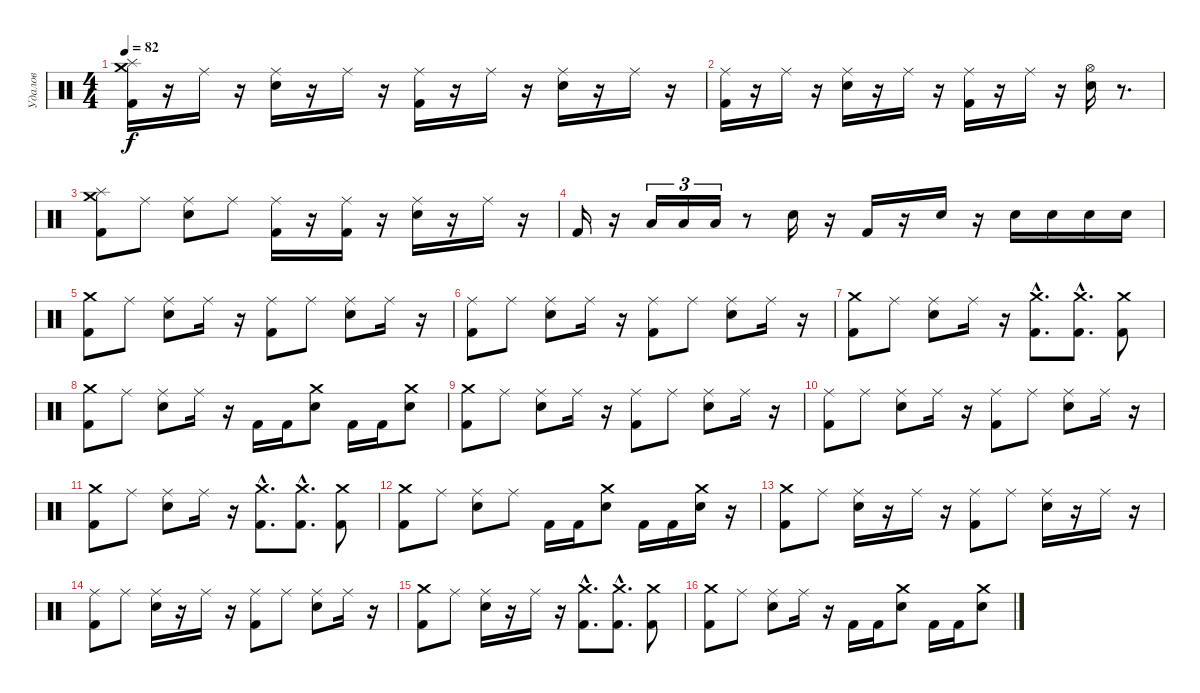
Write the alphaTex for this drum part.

\track ("Удалов" "Удалов") {instrument percussion}
\staff {score}
\articulation defaults
\ts (4 4)
\tempo 82
\clef neutral
\ks c
("Crash medium (hit)" "Splash (hit)" "Kick (hit) 2").16{dy f} r.16 "Ride (middle)".16 r.16 ("Ride (middle)" "Snare (hit) 2").16 r.16 "Ride (middle)".16 r.16 ("Ride (middle)" "Kick (hit) 2").16 r.16 "Ride (middle)".16 r.16 ("Ride (middle)" "Snare (hit) 2").16 r.16 "Ride (middle)".16 r.16 |
("Ride (middle)" "Kick (hit) 2").16 r.16 "Ride (middle)".16 r.16 ("Ride (middle)" "Snare (hit) 2").16 r.16 "Ride (middle)".16 r.16 ("Ride (middle)" "Kick (hit) 2").16 r.16 "Ride (middle)".16 r.16 ("Hi-Hat (open)" "Snare (hit) 2").16 r.8{d} |
("Crash medium (hit)" "Splash (hit)" "Kick (hit) 2").8 "Ride (middle)".8 ("Ride (middle)" "Snare (hit) 2").8 "Ride (middle)".8 ("Ride (middle)" "Kick (hit) 2").16 r.16 ("Ride (middle)" "Kick (hit) 2").16 r.16 ("Ride (middle)" "Snare (hit) 2").16 r.16 "Ride (middle)".16 r.16 |
"Kick (hit) 2".16 r.16 "Low Tom (hit)".16{tu (3 2)} "Low Tom (hit)".16{tu (3 2)} "Low Tom (hit)".16{tu (3 2)} r.8 "Electric Snare (hit)".16 r.16 "Kick (hit) 2".16 r.16 "Snare (hit) 2".16 r.16 "Snare (hit) 2".16 "Snare (hit) 2".16 "Snare (hit) 2".16 "Snare (hit) 2".16 |
("Crash medium (hit)" "Kick (hit) 2").8 "Ride (middle)".8 ("Ride (middle)" "Snare (hit) 2").8 "Ride (middle)".16 r.16 ("Ride (middle)" "Kick (hit) 2").8 "Ride (middle)".8 ("Ride (middle)" "Snare (hit) 2").8 "Ride (middle)".16 r.16 |
("Ride (middle)" "Kick (hit) 2").8 "Ride (middle)".8 ("Ride (middle)" "Snare (hit) 2").8 "Ride (middle)".16 r.16 ("Ride (middle)" "Kick (hit) 2").8 "Ride (middle)".8 ("Ride (middle)" "Snare (hit) 2").8 "Ride (middle)".16 r.16 |
("Crash medium (hit)" "Kick (hit) 2").8 "Ride (middle)".8 ("Ride (middle)" "Snare (hit) 2").8 "Ride (middle)".16 r.16 ("Crash medium (hit)"{hac} "Kick (hit) 2").8{d} ("Crash medium (hit)"{hac} "Kick (hit) 2").8{d} ("Crash medium (hit)" "Kick (hit) 2").8 |
("Crash medium (hit)" "Kick (hit) 2").8 "Ride (middle)".8 ("Ride (middle)" "Snare (hit) 2").8 "Ride (middle)".16 r.16 "Kick (hit) 2".16 "Kick (hit) 2".16 ("Crash medium (hit)" "Snare (hit) 2").8 "Kick (hit) 2".16 "Kick (hit) 2".16 ("Crash medium (hit)" "Snare (hit) 2").8 |
("Crash medium (hit)" "Kick (hit) 2").8 "Ride (middle)".8 ("Ride (middle)" "Snare (hit) 2").8 "Ride (middle)".16 r.16 ("Ride (middle)" "Kick (hit) 2").8 "Ride (middle)".8 ("Ride (middle)" "Snare (hit) 2").8 "Ride (middle)".16 r.16 |
("Ride (middle)" "Kick (hit) 2").8 "Ride (middle)".8 ("Ride (middle)" "Snare (hit) 2").8 "Ride (middle)".16 r.16 ("Ride (middle)" "Kick (hit) 2").8 "Ride (middle)".8 ("Ride (middle)" "Snare (hit) 2").8 "Ride (middle)".16 r.16 |
("Crash medium (hit)" "Kick (hit) 2").8 "Ride (middle)".8 ("Ride (middle)" "Snare (hit) 2").8 "Ride (middle)".16 r.16 ("Crash medium (hit)"{hac} "Kick (hit) 2").8{d} ("Crash medium (hit)"{hac} "Kick (hit) 2").8{d} ("Crash medium (hit)" "Kick (hit) 2").8 |
("Crash medium (hit)" "Kick (hit) 2").8 "Ride (middle)".8 ("Ride (middle)" "Snare (hit) 2").8 "Ride (middle)".8 "Kick (hit) 2".16 "Kick (hit) 2".16 ("Crash medium (hit)" "Snare (hit) 2").8 "Kick (hit) 2".16 "Kick (hit) 2".16 ("Crash medium (hit)" "Snare (hit) 2").16 r.16 |
("Crash medium (hit)" "Kick (hit) 2").8 "Ride (middle)".8 ("Ride (middle)" "Snare (hit) 2").16 r.16 "Ride (middle)".16 r.16 ("Ride (middle)" "Kick (hit) 2").8 "Ride (middle)".8 ("Ride (middle)" "Snare (hit) 2").16 r.16 "Ride (middle)".16 r.16 |
("Ride (middle)" "Kick (hit) 2").8 "Ride (middle)".8 ("Ride (middle)" "Snare (hit) 2").16 r.16 "Ride (middle)".16 r.16 ("Ride (middle)" "Kick (hit) 2").8 "Ride (middle)".8 ("Ride (middle)" "Snare (hit) 2").8 "Ride (middle)".16 r.16 |
("Crash medium (hit)" "Kick (hit) 2").8 "Ride (middle)".8 ("Ride (middle)" "Snare (hit) 2").16 r.16 "Ride (middle)".16 r.16 ("Crash medium (hit)"{hac} "Kick (hit) 2").8{d} ("Crash medium (hit)"{hac} "Kick (hit) 2").8{d} ("Crash medium (hit)" "Kick (hit) 2").8 |
("Crash medium (hit)" "Kick (hit) 2").8 "Ride (middle)".8 ("Ride (middle)" "Snare (hit) 2").8 "Ride (middle)".16 r.16 "Kick (hit) 2".16 "Kick (hit) 2".16 ("Crash medium (hit)" "Snare (hit) 2").8 "Kick (hit) 2".16 "Kick (hit) 2".16 ("Crash medium (hit)" "Snare (hit) 2").8
